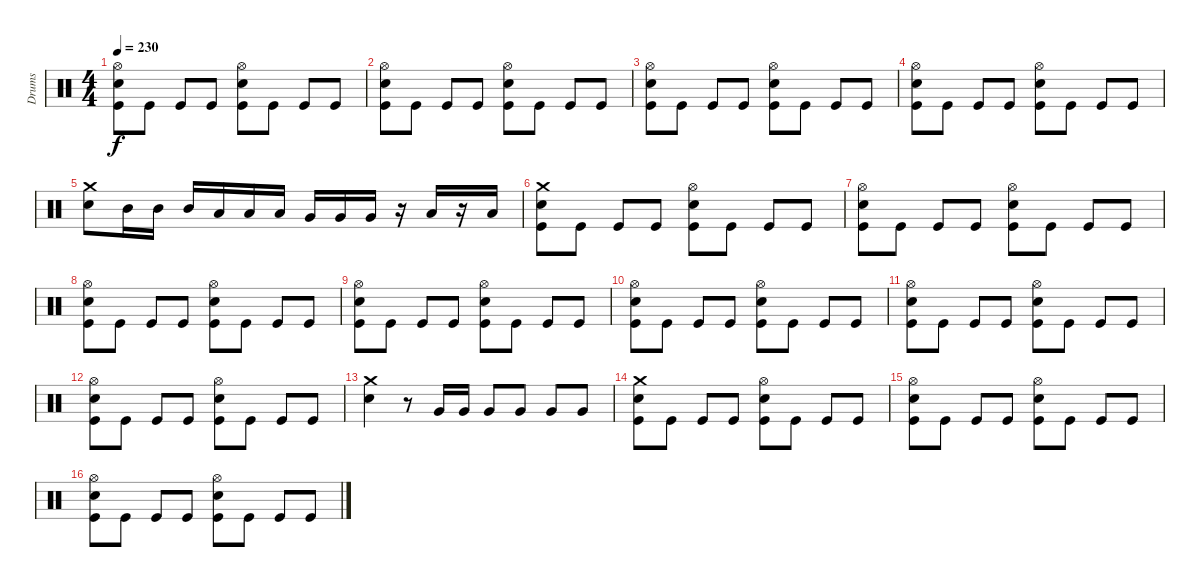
\track ("Drums" "Drums") {instrument percussion}
\staff {score}
\articulation defaults
\ts (4 4)
\tempo 230
\clef neutral
\ks c
("Hi-Hat (open)" "Electric Snare (hit)" "Kick (hit)").8{dy f} "Kick (hit)".8 "Kick (hit)".8 "Kick (hit)".8 ("Hi-Hat (open)" "Electric Snare (hit)" "Kick (hit)").8 "Kick (hit)".8 "Kick (hit)".8 "Kick (hit)".8 |
("Hi-Hat (open)" "Electric Snare (hit)" "Kick (hit)").8 "Kick (hit)".8 "Kick (hit)".8 "Kick (hit)".8 ("Hi-Hat (open)" "Electric Snare (hit)" "Kick (hit)").8 "Kick (hit)".8 "Kick (hit)".8 "Kick (hit)".8 |
("Hi-Hat (open)" "Electric Snare (hit)" "Kick (hit)").8 "Kick (hit)".8 "Kick (hit)".8 "Kick (hit)".8 ("Hi-Hat (open)" "Electric Snare (hit)" "Kick (hit)").8 "Kick (hit)".8 "Kick (hit)".8 "Kick (hit)".8 |
("Hi-Hat (open)" "Electric Snare (hit)" "Kick (hit)").8 "Kick (hit)".8 "Kick (hit)".8 "Kick (hit)".8 ("Hi-Hat (open)" "Electric Snare (hit)" "Kick (hit)").8 "Kick (hit)".8 "Kick (hit)".8 "Kick (hit)".8 |
("Crash medium (hit)" "Electric Snare (hit)").8 "Mid Tom (hit)".16 "Mid Tom (hit)".16 "Mid Tom (hit)".16 "Low Tom (hit)".16 "Low Tom (hit)".16 "Low Tom (hit)".16 "Very Low Tom (hit)".16 "Very Low Tom (hit)".16 "Very Low Tom (hit)".16 r.16 "Low Floor Tom (hit)".16 r.16 "Low Floor Tom (hit)".16 |
("Crash medium (hit)" "Electric Snare (hit)" "Kick (hit)").8 "Kick (hit)".8 "Kick (hit)".8 "Kick (hit)".8 ("Hi-Hat (open)" "Electric Snare (hit)" "Kick (hit)").8 "Kick (hit)".8 "Kick (hit)".8 "Kick (hit)".8 |
("Hi-Hat (open)" "Electric Snare (hit)" "Kick (hit)").8 "Kick (hit)".8 "Kick (hit)".8 "Kick (hit)".8 ("Hi-Hat (open)" "Electric Snare (hit)" "Kick (hit)").8 "Kick (hit)".8 "Kick (hit)".8 "Kick (hit)".8 |
("Hi-Hat (open)" "Electric Snare (hit)" "Kick (hit)").8 "Kick (hit)".8 "Kick (hit)".8 "Kick (hit)".8 ("Hi-Hat (open)" "Electric Snare (hit)" "Kick (hit)").8 "Kick (hit)".8 "Kick (hit)".8 "Kick (hit)".8 |
("Hi-Hat (open)" "Electric Snare (hit)" "Kick (hit)").8 "Kick (hit)".8 "Kick (hit)".8 "Kick (hit)".8 ("Hi-Hat (open)" "Electric Snare (hit)" "Kick (hit)").8 "Kick (hit)".8 "Kick (hit)".8 "Kick (hit)".8 |
("Hi-Hat (open)" "Electric Snare (hit)" "Kick (hit)").8 "Kick (hit)".8 "Kick (hit)".8 "Kick (hit)".8 ("Hi-Hat (open)" "Electric Snare (hit)" "Kick (hit)").8 "Kick (hit)".8 "Kick (hit)".8 "Kick (hit)".8 |
("Hi-Hat (open)" "Electric Snare (hit)" "Kick (hit)").8 "Kick (hit)".8 "Kick (hit)".8 "Kick (hit)".8 ("Hi-Hat (open)" "Electric Snare (hit)" "Kick (hit)").8 "Kick (hit)".8 "Kick (hit)".8 "Kick (hit)".8 |
("Hi-Hat (open)" "Electric Snare (hit)" "Kick (hit)").8 "Kick (hit)".8 "Kick (hit)".8 "Kick (hit)".8 ("Hi-Hat (open)" "Electric Snare (hit)" "Kick (hit)").8 "Kick (hit)".8 "Kick (hit)".8 "Kick (hit)".8 |
("Crash medium (hit)" "Electric Snare (hit)").4 r.8 "Very Low Tom (hit)".16 "Very Low Tom (hit)".16 "Very Low Tom (hit)".8 "Very Low Tom (hit)".8 "Very Low Tom (hit)".8 "Very Low Tom (hit)".8 |
("Crash medium (hit)" "Electric Snare (hit)" "Kick (hit)").8 "Kick (hit)".8 "Kick (hit)".8 "Kick (hit)".8 ("Hi-Hat (open)" "Electric Snare (hit)" "Kick (hit)").8 "Kick (hit)".8 "Kick (hit)".8 "Kick (hit)".8 |
("Hi-Hat (open)" "Electric Snare (hit)" "Kick (hit)").8 "Kick (hit)".8 "Kick (hit)".8 "Kick (hit)".8 ("Hi-Hat (open)" "Electric Snare (hit)" "Kick (hit)").8 "Kick (hit)".8 "Kick (hit)".8 "Kick (hit)".8 |
("Hi-Hat (open)" "Electric Snare (hit)" "Kick (hit)").8 "Kick (hit)".8 "Kick (hit)".8 "Kick (hit)".8 ("Hi-Hat (open)" "Electric Snare (hit)" "Kick (hit)").8 "Kick (hit)".8 "Kick (hit)".8 "Kick (hit)".8
